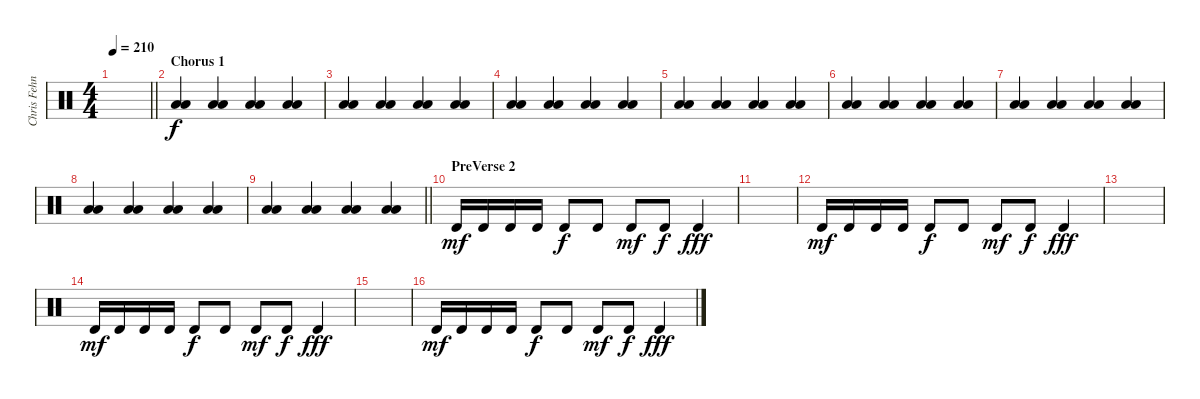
\track ("Chris Fehn" "Chris Fehn") {instrument percussion}
\staff {score}
\articulation defaults
\ts (4 4)
\tempo 210
\clef neutral
\barLineRight lightlight
\ks c
|
\section ("" "Chorus 1")
("Low Floor Tom (hit)" "Low Floor Tom (hit)").4 ("Low Floor Tom (hit)" "Low Floor Tom (hit)").4 ("Low Floor Tom (hit)" "Low Floor Tom (hit)").4 ("Low Floor Tom (hit)" "Low Floor Tom (hit)").4 |
("Low Floor Tom (hit)" "Low Floor Tom (hit)").4 ("Low Floor Tom (hit)" "Low Floor Tom (hit)").4 ("Low Floor Tom (hit)" "Low Floor Tom (hit)").4 ("Low Floor Tom (hit)" "Low Floor Tom (hit)").4 |
("Low Floor Tom (hit)" "Low Floor Tom (hit)").4 ("Low Floor Tom (hit)" "Low Floor Tom (hit)").4 ("Low Floor Tom (hit)" "Low Floor Tom (hit)").4 ("Low Floor Tom (hit)" "Low Floor Tom (hit)").4 |
("Low Floor Tom (hit)" "Low Floor Tom (hit)").4 ("Low Floor Tom (hit)" "Low Floor Tom (hit)").4 ("Low Floor Tom (hit)" "Low Floor Tom (hit)").4 ("Low Floor Tom (hit)" "Low Floor Tom (hit)").4 |
("Low Floor Tom (hit)" "Low Floor Tom (hit)").4 ("Low Floor Tom (hit)" "Low Floor Tom (hit)").4 ("Low Floor Tom (hit)" "Low Floor Tom (hit)").4 ("Low Floor Tom (hit)" "Low Floor Tom (hit)").4 |
("Low Floor Tom (hit)" "Low Floor Tom (hit)").4 ("Low Floor Tom (hit)" "Low Floor Tom (hit)").4 ("Low Floor Tom (hit)" "Low Floor Tom (hit)").4 ("Low Floor Tom (hit)" "Low Floor Tom (hit)").4 |
("Low Floor Tom (hit)" "Low Floor Tom (hit)").4 ("Low Floor Tom (hit)" "Low Floor Tom (hit)").4 ("Low Floor Tom (hit)" "Low Floor Tom (hit)").4 ("Low Floor Tom (hit)" "Low Floor Tom (hit)").4 |
\barLineRight lightlight
("Low Floor Tom (hit)" "Low Floor Tom (hit)").4 ("Low Floor Tom (hit)" "Low Floor Tom (hit)").4 ("Low Floor Tom (hit)" "Low Floor Tom (hit)").4 ("Low Floor Tom (hit)" "Low Floor Tom (hit)").4 |
\section ("" "PreVerse 2")
"Timbale high (hit)".16{dy mf} "Timbale high (hit)".16 "Timbale high (hit)".16 "Timbale high (hit)".16 "Timbale high (hit)".8{dy f} "Timbale high (hit)".8 "Timbale high (hit)".8{dy mf} "Timbale high (hit)".8{dy f} "Timbale high (hit)".4{dy fff} |
|
"Timbale high (hit)".16{dy mf} "Timbale high (hit)".16 "Timbale high (hit)".16 "Timbale high (hit)".16 "Timbale high (hit)".8{dy f} "Timbale high (hit)".8 "Timbale high (hit)".8{dy mf} "Timbale high (hit)".8{dy f} "Timbale high (hit)".4{dy fff} |
|
"Timbale high (hit)".16{dy mf} "Timbale high (hit)".16 "Timbale high (hit)".16 "Timbale high (hit)".16 "Timbale high (hit)".8{dy f} "Timbale high (hit)".8 "Timbale high (hit)".8{dy mf} "Timbale high (hit)".8{dy f} "Timbale high (hit)".4{dy fff} |
|
"Timbale high (hit)".16{dy mf} "Timbale high (hit)".16 "Timbale high (hit)".16 "Timbale high (hit)".16 "Timbale high (hit)".8{dy f} "Timbale high (hit)".8 "Timbale high (hit)".8{dy mf} "Timbale high (hit)".8{dy f} "Timbale high (hit)".4{dy fff}
